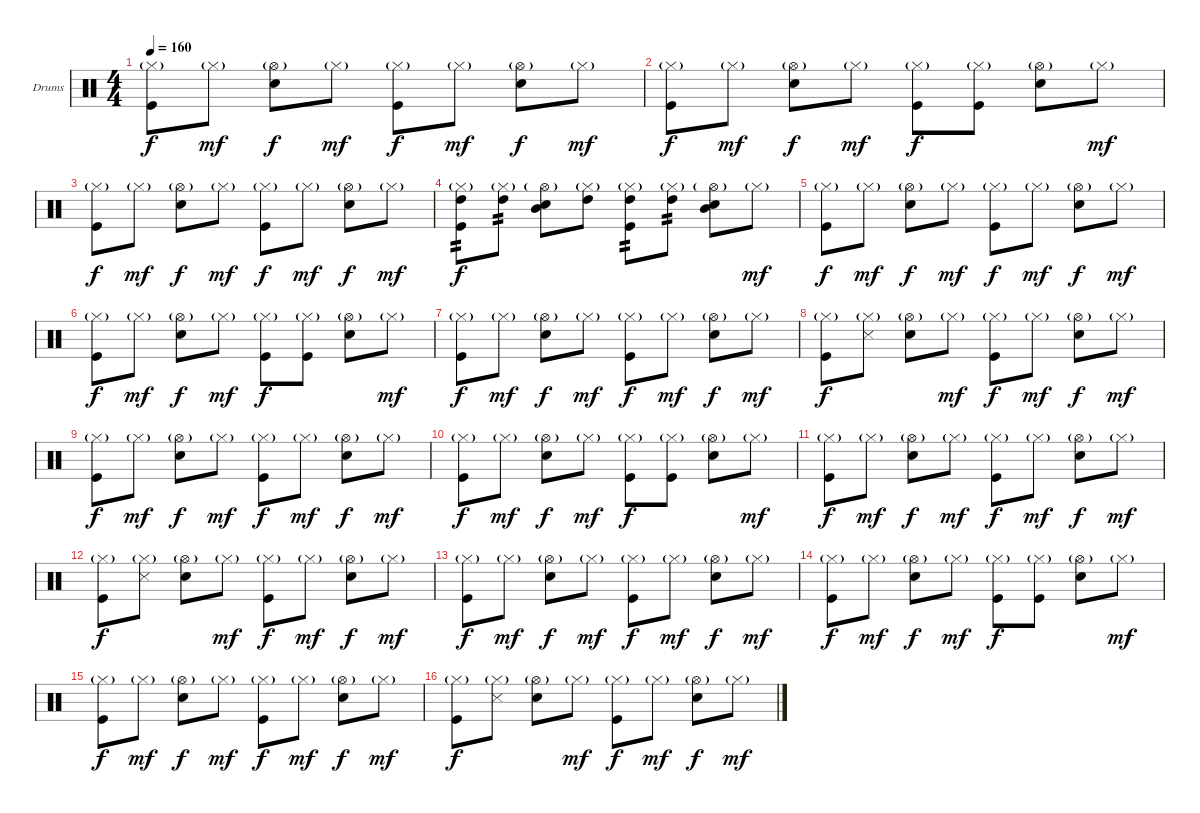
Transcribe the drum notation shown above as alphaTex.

\bracketExtendMode groupsimilarinstruments
\firstSystemTrackNameOrientation horizontal
\otherSystemsTrackNameOrientation horizontal
\track ("Ударные" "Drums") {instrument percussion}
\staff {score}
\articulation defaults
\ts (4 4)
\tempo 160
\clef neutral
\ks c
("Hi-Hat (closed)"{g} "Kick (hit)").8{dy f} "Hi-Hat (closed)"{g}.8{dy mf} ("Hi-Hat (open)"{g} "Snare (hit) 2").8{dy f} "Hi-Hat (closed)"{g}.8{dy mf} ("Hi-Hat (closed)"{g} "Kick (hit)").8{dy f} "Hi-Hat (closed)"{g}.8{dy mf} ("Hi-Hat (open)"{g} "Snare (hit) 2").8{dy f} "Hi-Hat (closed)"{g}.8{dy mf} |
("Hi-Hat (closed)"{g} "Kick (hit)").8{dy f} "Hi-Hat (closed)"{g}.8{dy mf} ("Hi-Hat (open)"{g} "Snare (hit) 2").8{dy f} "Hi-Hat (closed)"{g}.8{dy mf} ("Hi-Hat (closed)"{g} "Kick (hit)").8{dy f} ("Hi-Hat (closed)"{g} "Kick (hit)").8 ("Hi-Hat (open)"{g} "Snare (hit) 2").8 "Hi-Hat (closed)"{g}.8{dy mf} |
("Hi-Hat (closed)"{g} "Kick (hit)").8{dy f} "Hi-Hat (closed)"{g}.8{dy mf} ("Hi-Hat (open)"{g} "Snare (hit) 2").8{dy f} "Hi-Hat (closed)"{g}.8{dy mf} ("Hi-Hat (closed)"{g} "Kick (hit)").8{dy f} "Hi-Hat (closed)"{g}.8{dy mf} ("Hi-Hat (open)"{g} "Snare (hit) 2").8{dy f} "Hi-Hat (closed)"{g}.8{dy mf} |
("Hi-Hat (closed)"{g} "High Tom (hit)" "Kick (hit)").8{tp 2 dy f} ("Hi-Hat (closed)"{g} "High Tom (hit)").8{tp 2} ("Hi-Hat (open)"{g} "Mid Tom (hit)" "Snare (hit) 2").8 ("Hi-Hat (closed)"{g} "High Tom (hit)").8 ("Hi-Hat (closed)"{g} "High Tom (hit)" "Kick (hit)").8{tp 2} ("Hi-Hat (closed)"{g} "High Tom (hit)").8{tp 2} ("Hi-Hat (open)"{g} "Mid Tom (hit)" "Snare (hit) 2").8 "Hi-Hat (closed)"{g}.8{dy mf} |
("Hi-Hat (closed)"{g} "Kick (hit)").8{dy f} "Hi-Hat (closed)"{g}.8{dy mf} ("Hi-Hat (open)"{g} "Snare (hit) 2").8{dy f} "Hi-Hat (closed)"{g}.8{dy mf} ("Hi-Hat (closed)"{g} "Kick (hit)").8{dy f} "Hi-Hat (closed)"{g}.8{dy mf} ("Hi-Hat (open)"{g} "Snare (hit) 2").8{dy f} "Hi-Hat (closed)"{g}.8{dy mf} |
("Hi-Hat (closed)"{g} "Kick (hit)").8{dy f} "Hi-Hat (closed)"{g}.8{dy mf} ("Hi-Hat (open)"{g} "Snare (hit) 2").8{dy f} "Hi-Hat (closed)"{g}.8{dy mf} ("Hi-Hat (closed)"{g} "Kick (hit)").8{dy f} ("Hi-Hat (closed)"{g} "Kick (hit)").8 ("Hi-Hat (open)"{g} "Snare (hit) 2").8 "Hi-Hat (closed)"{g}.8{dy mf} |
("Hi-Hat (closed)"{g} "Kick (hit)").8{dy f} "Hi-Hat (closed)"{g}.8{dy mf} ("Hi-Hat (open)"{g} "Snare (hit) 2").8{dy f} "Hi-Hat (closed)"{g}.8{dy mf} ("Hi-Hat (closed)"{g} "Kick (hit)").8{dy f} "Hi-Hat (closed)"{g}.8{dy mf} ("Hi-Hat (open)"{g} "Snare (hit) 2").8{dy f} "Hi-Hat (closed)"{g}.8{dy mf} |
("Hi-Hat (closed)"{g} "Kick (hit)").8{dy f} ("Hi-Hat (closed)"{g} "Snare (side stick) 3").8 ("Hi-Hat (open)"{g} "Snare (hit) 2").8 "Hi-Hat (closed)"{g}.8{dy mf} ("Hi-Hat (closed)"{g} "Kick (hit)").8{dy f} "Hi-Hat (closed)"{g}.8{dy mf} ("Hi-Hat (open)"{g} "Snare (hit) 2").8{dy f} "Hi-Hat (closed)"{g}.8{dy mf} |
("Hi-Hat (closed)"{g} "Kick (hit)").8{dy f} "Hi-Hat (closed)"{g}.8{dy mf} ("Hi-Hat (open)"{g} "Snare (hit) 2").8{dy f} "Hi-Hat (closed)"{g}.8{dy mf} ("Hi-Hat (closed)"{g} "Kick (hit)").8{dy f} "Hi-Hat (closed)"{g}.8{dy mf} ("Hi-Hat (open)"{g} "Snare (hit) 2").8{dy f} "Hi-Hat (closed)"{g}.8{dy mf} |
("Hi-Hat (closed)"{g} "Kick (hit)").8{dy f} "Hi-Hat (closed)"{g}.8{dy mf} ("Hi-Hat (open)"{g} "Snare (hit) 2").8{dy f} "Hi-Hat (closed)"{g}.8{dy mf} ("Hi-Hat (closed)"{g} "Kick (hit)").8{dy f} ("Hi-Hat (closed)"{g} "Kick (hit)").8 ("Hi-Hat (open)"{g} "Snare (hit) 2").8 "Hi-Hat (closed)"{g}.8{dy mf} |
("Hi-Hat (closed)"{g} "Kick (hit)").8{dy f} "Hi-Hat (closed)"{g}.8{dy mf} ("Hi-Hat (open)"{g} "Snare (hit) 2").8{dy f} "Hi-Hat (closed)"{g}.8{dy mf} ("Hi-Hat (closed)"{g} "Kick (hit)").8{dy f} "Hi-Hat (closed)"{g}.8{dy mf} ("Hi-Hat (open)"{g} "Snare (hit) 2").8{dy f} "Hi-Hat (closed)"{g}.8{dy mf} |
("Hi-Hat (closed)"{g} "Kick (hit)").8{dy f} ("Hi-Hat (closed)"{g} "Snare (side stick) 3").8 ("Hi-Hat (open)"{g} "Snare (hit) 2").8 "Hi-Hat (closed)"{g}.8{dy mf} ("Hi-Hat (closed)"{g} "Kick (hit)").8{dy f} "Hi-Hat (closed)"{g}.8{dy mf} ("Hi-Hat (open)"{g} "Snare (hit) 2").8{dy f} "Hi-Hat (closed)"{g}.8{dy mf} |
("Hi-Hat (closed)"{g} "Kick (hit)").8{dy f} "Hi-Hat (closed)"{g}.8{dy mf} ("Hi-Hat (open)"{g} "Snare (hit) 2").8{dy f} "Hi-Hat (closed)"{g}.8{dy mf} ("Hi-Hat (closed)"{g} "Kick (hit)").8{dy f} "Hi-Hat (closed)"{g}.8{dy mf} ("Hi-Hat (open)"{g} "Snare (hit) 2").8{dy f} "Hi-Hat (closed)"{g}.8{dy mf} |
("Hi-Hat (closed)"{g} "Kick (hit)").8{dy f} "Hi-Hat (closed)"{g}.8{dy mf} ("Hi-Hat (open)"{g} "Snare (hit) 2").8{dy f} "Hi-Hat (closed)"{g}.8{dy mf} ("Hi-Hat (closed)"{g} "Kick (hit)").8{dy f} ("Hi-Hat (closed)"{g} "Kick (hit)").8 ("Hi-Hat (open)"{g} "Snare (hit) 2").8 "Hi-Hat (closed)"{g}.8{dy mf} |
("Hi-Hat (closed)"{g} "Kick (hit)").8{dy f} "Hi-Hat (closed)"{g}.8{dy mf} ("Hi-Hat (open)"{g} "Snare (hit) 2").8{dy f} "Hi-Hat (closed)"{g}.8{dy mf} ("Hi-Hat (closed)"{g} "Kick (hit)").8{dy f} "Hi-Hat (closed)"{g}.8{dy mf} ("Hi-Hat (open)"{g} "Snare (hit) 2").8{dy f} "Hi-Hat (closed)"{g}.8{dy mf} |
("Hi-Hat (closed)"{g} "Kick (hit)").8{dy f} ("Hi-Hat (closed)"{g} "Snare (side stick) 3").8 ("Hi-Hat (open)"{g} "Snare (hit) 2").8 "Hi-Hat (closed)"{g}.8{dy mf} ("Hi-Hat (closed)"{g} "Kick (hit)").8{dy f} "Hi-Hat (closed)"{g}.8{dy mf} ("Hi-Hat (open)"{g} "Snare (hit) 2").8{dy f} "Hi-Hat (closed)"{g}.8{dy mf}
